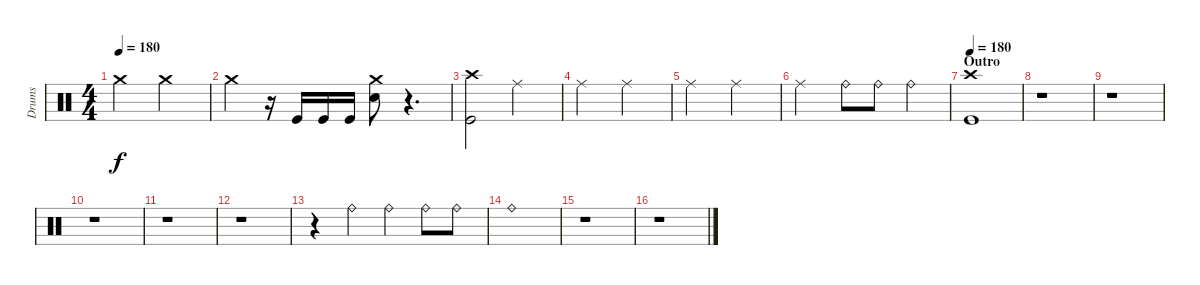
\track ("Drums" "Drums") {instrument percussion}
\staff {score}
\articulation defaults
\ts (4 4)
\tempo 180
\clef neutral
\ks c "Crash medium (hit)".2{dy f} "Crash medium (hit)".2
|
"Crash medium (hit)".4 r.16 "Kick (hit)".16 "Kick (hit)".16 "Kick (hit)".16 ("Crash medium (hit)" "Electric Snare (hit)").8 r.4{d} |
("Crash high (hit)" "Kick (hit)").2 "Ride (middle)".2 |
"Ride (middle)".2 "Ride (middle)".2 |
"Ride (middle)".2 "Ride (middle)".2 |
"Ride (middle)".2 "Ride (bell)".8 "Ride (bell)".8 "Ride (bell)".4 |
\section ("" "Outro")
\tempo 180
("Crash high (hit)" "Kick (hit)").1 |
r.1 |
r.1 |
r.1 |
r.1 |
r.1 |
r.4 "Ride (bell)".4 "Ride (bell)".4 "Ride (bell)".8 "Ride (bell)".8 |
"Ride (bell)".1 |
r.1 |
r.1
